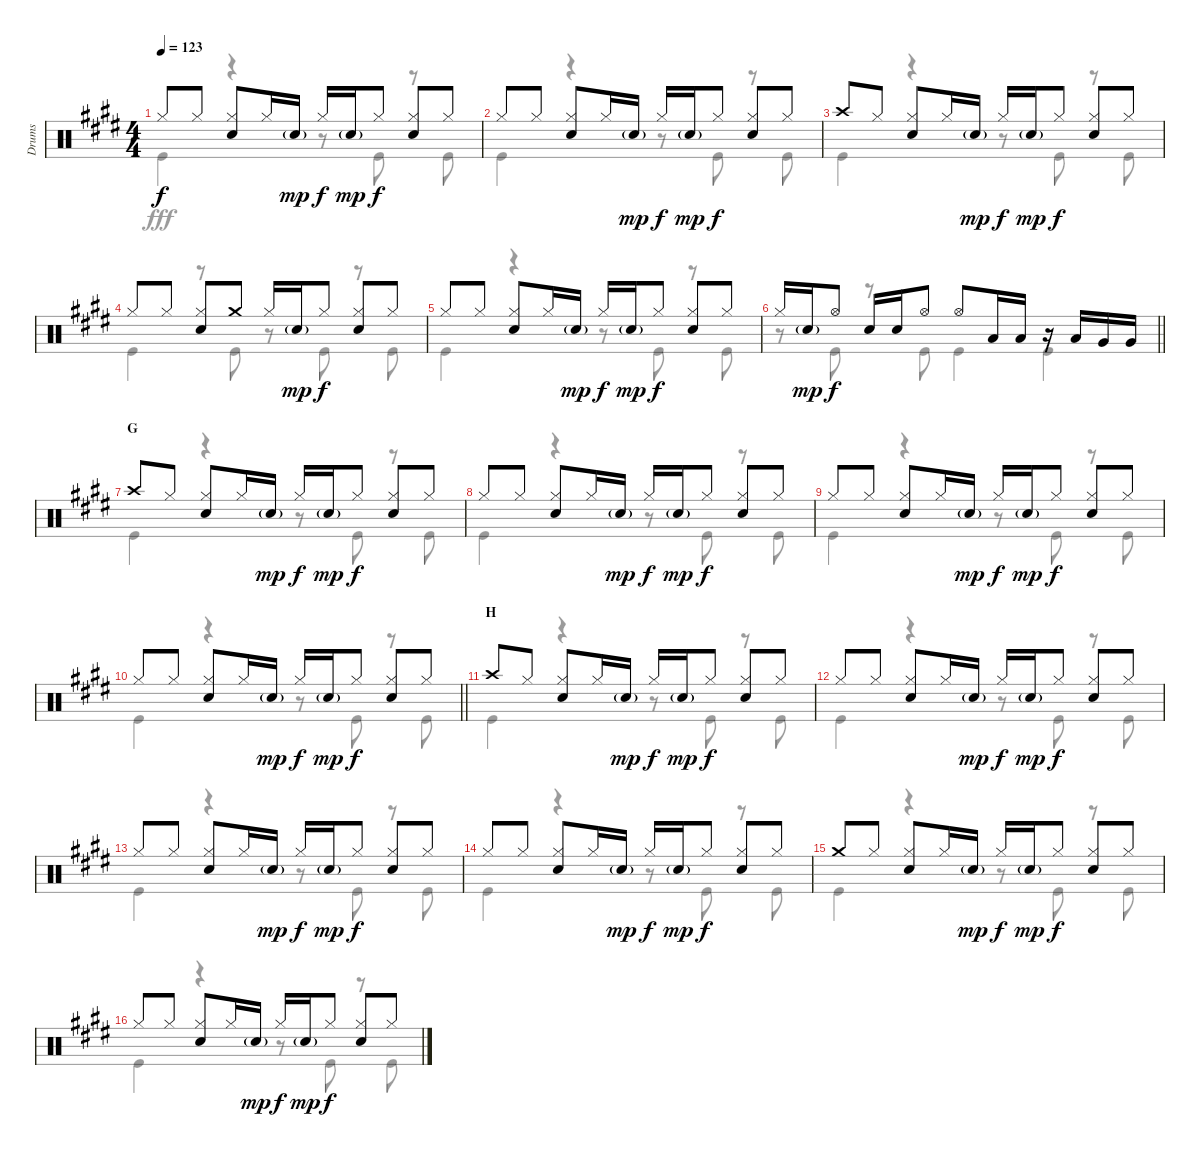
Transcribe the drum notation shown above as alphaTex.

\track ("Drums" "Drums") {instrument percussion}
\staff {score}
\articulation defaults
\voice
\ts (4 4)
\tempo 123
\clef neutral
\ks e "Hi-Hat (closed)".8{dy f} "Hi-Hat (closed)".8
("Hi-Hat (closed)" "Snare (hit) 2").8 "Hi-Hat (closed)".16 "Snare (hit) 2"{g}.16{dy mp} "Hi-Hat (closed)".16{dy f} "Snare (hit) 2"{g}.16{dy mp} "Hi-Hat (closed)".8{dy f} ("Hi-Hat (closed)" "Snare (hit) 2").8 "Hi-Hat (closed)".8 |
"Hi-Hat (closed)".8 "Hi-Hat (closed)".8 ("Hi-Hat (closed)" "Snare (hit) 2").8 "Hi-Hat (closed)".16 "Snare (hit) 2"{g}.16{dy mp} "Hi-Hat (closed)".16{dy f} "Snare (hit) 2"{g}.16{dy mp} "Hi-Hat (closed)".8{dy f} ("Hi-Hat (closed)" "Snare (hit) 2").8 "Hi-Hat (closed)".8 |
"Crash high (hit)".8 "Hi-Hat (closed)".8 ("Hi-Hat (closed)" "Snare (hit) 2").8 "Hi-Hat (closed)".16 "Snare (hit) 2"{g}.16{dy mp} "Hi-Hat (closed)".16{dy f} "Snare (hit) 2"{g}.16{dy mp} "Hi-Hat (closed)".8{dy f} ("Hi-Hat (closed)" "Snare (hit) 2").8 "Hi-Hat (closed)".8 |
"Hi-Hat (closed)".8 "Hi-Hat (closed)".8 ("Hi-Hat (closed)" "Snare (hit) 2").8 "Crash medium (hit)".8 "Hi-Hat (closed)".16 "Snare (hit) 2"{g}.16{dy mp} "Hi-Hat (closed)".8{dy f} ("Hi-Hat (closed)" "Snare (hit) 2").8 "Hi-Hat (closed)".8 |
"Hi-Hat (closed)".8 "Hi-Hat (closed)".8 ("Hi-Hat (closed)" "Snare (hit) 2").8 "Hi-Hat (closed)".16 "Snare (hit) 2"{g}.16{dy mp} "Hi-Hat (closed)".16{dy f} "Snare (hit) 2"{g}.16{dy mp} "Hi-Hat (closed)".8{dy f} ("Hi-Hat (closed)" "Snare (hit) 2").8 "Hi-Hat (closed)".8 |
\barLineRight lightlight "Hi-Hat (closed)".16 "Snare (hit) 2"{g}.16{dy mp} "Hi-Hat (open)".8{dy f} "Snare (hit) 2".16 "Snare (hit) 2".16 "Hi-Hat (open)".8 "Hi-Hat (open)".8 "Low Tom (hit)".16 "Low Tom (hit)".16
r.16 "Low Tom (hit)".16 "Very Low Tom (hit)".16 "Very Low Tom (hit)".16 |
\section ("" "G")
"Crash high (hit)".8 "Hi-Hat (closed)".8 ("Hi-Hat (closed)" "Snare (hit) 2").8 "Hi-Hat (closed)".16 "Snare (hit) 2"{g}.16{dy mp} "Hi-Hat (closed)".16{dy f} "Snare (hit) 2"{g}.16{dy mp} "Hi-Hat (closed)".8{dy f} ("Hi-Hat (closed)" "Snare (hit) 2").8 "Hi-Hat (closed)".8 |
"Hi-Hat (closed)".8 "Hi-Hat (closed)".8 ("Hi-Hat (closed)" "Snare (hit) 2").8 "Hi-Hat (closed)".16 "Snare (hit) 2"{g}.16{dy mp} "Hi-Hat (closed)".16{dy f} "Snare (hit) 2"{g}.16{dy mp} "Hi-Hat (closed)".8{dy f} ("Hi-Hat (closed)" "Snare (hit) 2").8 "Hi-Hat (closed)".8 |
"Hi-Hat (closed)".8 "Hi-Hat (closed)".8 ("Hi-Hat (closed)" "Snare (hit) 2").8 "Hi-Hat (closed)".16 "Snare (hit) 2"{g}.16{dy mp} "Hi-Hat (closed)".16{dy f} "Snare (hit) 2"{g}.16{dy mp} "Hi-Hat (closed)".8{dy f} ("Hi-Hat (closed)" "Snare (hit) 2").8 "Hi-Hat (closed)".8 |
\barLineRight lightlight "Hi-Hat (closed)".8 "Hi-Hat (closed)".8
("Hi-Hat (closed)" "Snare (hit) 2").8 "Hi-Hat (closed)".16 "Snare (hit) 2"{g}.16{dy mp} "Hi-Hat (closed)".16{dy f} "Snare (hit) 2"{g}.16{dy mp} "Hi-Hat (closed)".8{dy f} ("Hi-Hat (closed)" "Snare (hit) 2").8 "Hi-Hat (closed)".8 |
\section ("" "H")
"Crash high (hit)".8 "Hi-Hat (closed)".8 ("Hi-Hat (closed)" "Snare (hit) 2").8 "Hi-Hat (closed)".16 "Snare (hit) 2"{g}.16{dy mp} "Hi-Hat (closed)".16{dy f} "Snare (hit) 2"{g}.16{dy mp} "Hi-Hat (closed)".8{dy f} ("Hi-Hat (closed)" "Snare (hit) 2").8 "Hi-Hat (closed)".8 |
"Hi-Hat (closed)".8 "Hi-Hat (closed)".8 ("Hi-Hat (closed)" "Snare (hit) 2").8 "Hi-Hat (closed)".16 "Snare (hit) 2"{g}.16{dy mp} "Hi-Hat (closed)".16{dy f} "Snare (hit) 2"{g}.16{dy mp} "Hi-Hat (closed)".8{dy f} ("Hi-Hat (closed)" "Snare (hit) 2").8 "Hi-Hat (closed)".8 |
"Hi-Hat (closed)".8 "Hi-Hat (closed)".8 ("Hi-Hat (closed)" "Snare (hit) 2").8 "Hi-Hat (closed)".16 "Snare (hit) 2"{g}.16{dy mp} "Hi-Hat (closed)".16{dy f} "Snare (hit) 2"{g}.16{dy mp} "Hi-Hat (closed)".8{dy f} ("Hi-Hat (closed)" "Snare (hit) 2").8 "Hi-Hat (closed)".8 |
"Hi-Hat (closed)".8 "Hi-Hat (closed)".8 ("Hi-Hat (closed)" "Snare (hit) 2").8 "Hi-Hat (closed)".16 "Snare (hit) 2"{g}.16{dy mp} "Hi-Hat (closed)".16{dy f} "Snare (hit) 2"{g}.16{dy mp} "Hi-Hat (closed)".8{dy f} ("Hi-Hat (closed)" "Snare (hit) 2").8 "Hi-Hat (closed)".8 |
"Crash medium (hit)".8 "Hi-Hat (closed)".8 ("Hi-Hat (closed)" "Snare (hit) 2").8 "Hi-Hat (closed)".16 "Snare (hit) 2"{g}.16{dy mp} "Hi-Hat (closed)".16{dy f} "Snare (hit) 2"{g}.16{dy mp} "Hi-Hat (closed)".8{dy f} ("Hi-Hat (closed)" "Snare (hit) 2").8 "Hi-Hat (closed)".8 |
"Hi-Hat (closed)".8 "Hi-Hat (closed)".8 ("Hi-Hat (closed)" "Snare (hit) 2").8 "Hi-Hat (closed)".16 "Snare (hit) 2"{g}.16{dy mp} "Hi-Hat (closed)".16{dy f} "Snare (hit) 2"{g}.16{dy mp} "Hi-Hat (closed)".8{dy f} ("Hi-Hat (closed)" "Snare (hit) 2").8 "Hi-Hat (closed)".8
\voice
\clef neutral
\ottava regular
\simile none
\ks e "Kick (hit)".4{dy fff}
r.4 r.8 "Kick (hit)".8 r.8 "Kick (hit)".8 |
"Kick (hit)".4 r.4 r.8 "Kick (hit)".8 r.8 "Kick (hit)".8 |
"Kick (hit)".4 r.4 r.8 "Kick (hit)".8 r.8 "Kick (hit)".8 |
"Kick (hit)".4 r.8 "Kick (hit)".8 r.8 "Kick (hit)".8 r.8 "Kick (hit)".8 |
"Kick (hit)".4 r.4 r.8 "Kick (hit)".8 r.8 "Kick (hit)".8 |
\barLineRight lightlight
r.8 "Kick (hit)".8 r.8 "Kick (hit)".8 "Kick (hit)".4 "Kick (hit)".4 |
"Kick (hit)".4 r.4 r.8 "Kick (hit)".8 r.8 "Kick (hit)".8 |
"Kick (hit)".4 r.4 r.8 "Kick (hit)".8 r.8 "Kick (hit)".8 |
"Kick (hit)".4 r.4 r.8 "Kick (hit)".8 r.8 "Kick (hit)".8 |
\barLineRight lightlight "Kick (hit)".4
r.4 r.8 "Kick (hit)".8 r.8 "Kick (hit)".8 |
"Kick (hit)".4 r.4 r.8 "Kick (hit)".8 r.8 "Kick (hit)".8 |
"Kick (hit)".4 r.4 r.8 "Kick (hit)".8 r.8 "Kick (hit)".8 |
"Kick (hit)".4 r.4 r.8 "Kick (hit)".8 r.8 "Kick (hit)".8 |
"Kick (hit)".4 r.4 r.8 "Kick (hit)".8 r.8 "Kick (hit)".8 |
"Kick (hit)".4 r.4 r.8 "Kick (hit)".8 r.8 "Kick (hit)".8 |
"Kick (hit)".4 r.4 r.8 "Kick (hit)".8 r.8 "Kick (hit)".8
